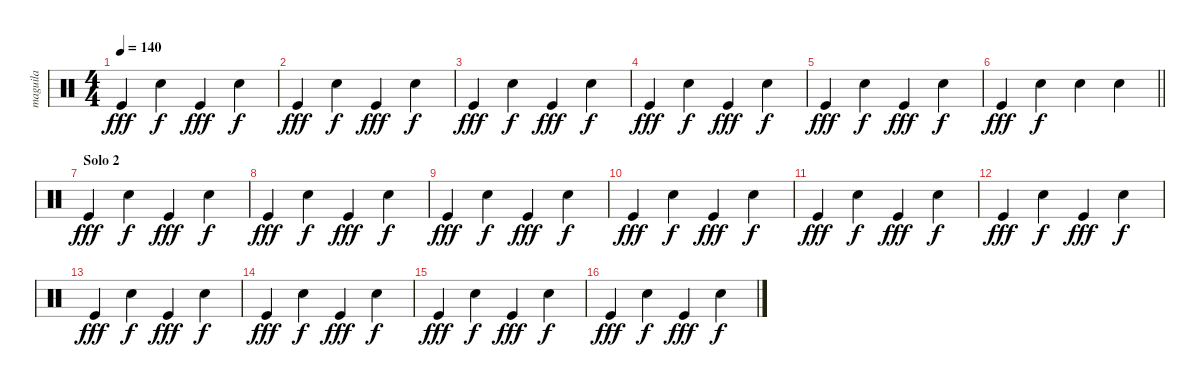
\track ("maguila" "maguila") {instrument percussion}
\staff {score}
\articulation defaults
\ts (4 4)
\tempo 140
\clef neutral
\ks c "Kick (hit)".4{dy fff} "Snare (hit) 2".4{dy f} "Kick (hit)".4{dy fff} "Snare (hit) 2".4{dy f}
|
"Kick (hit)".4{dy fff} "Snare (hit) 2".4{dy f} "Kick (hit)".4{dy fff} "Snare (hit) 2".4{dy f} |
"Kick (hit)".4{dy fff} "Snare (hit) 2".4{dy f} "Kick (hit)".4{dy fff} "Snare (hit) 2".4{dy f} |
"Kick (hit)".4{dy fff} "Snare (hit) 2".4{dy f} "Kick (hit)".4{dy fff} "Snare (hit) 2".4{dy f} |
"Kick (hit)".4{dy fff} "Snare (hit) 2".4{dy f} "Kick (hit)".4{dy fff} "Snare (hit) 2".4{dy f} |
\barLineRight lightlight "Kick (hit)".4{dy fff} "Snare (hit) 2".4{dy f} "Snare (hit) 2".4 "Snare (hit) 2".4
|
\section ("" "Solo 2")
"Kick (hit)".4{dy fff} "Snare (hit) 2".4{dy f} "Kick (hit)".4{dy fff} "Snare (hit) 2".4{dy f} |
"Kick (hit)".4{dy fff} "Snare (hit) 2".4{dy f} "Kick (hit)".4{dy fff} "Snare (hit) 2".4{dy f} |
"Kick (hit)".4{dy fff} "Snare (hit) 2".4{dy f} "Kick (hit)".4{dy fff} "Snare (hit) 2".4{dy f} |
"Kick (hit)".4{dy fff} "Snare (hit) 2".4{dy f} "Kick (hit)".4{dy fff} "Snare (hit) 2".4{dy f} |
"Kick (hit)".4{dy fff} "Snare (hit) 2".4{dy f} "Kick (hit)".4{dy fff} "Snare (hit) 2".4{dy f} |
"Kick (hit)".4{dy fff} "Snare (hit) 2".4{dy f} "Kick (hit)".4{dy fff} "Snare (hit) 2".4{dy f} |
"Kick (hit)".4{dy fff} "Snare (hit) 2".4{dy f} "Kick (hit)".4{dy fff} "Snare (hit) 2".4{dy f} |
"Kick (hit)".4{dy fff} "Snare (hit) 2".4{dy f} "Kick (hit)".4{dy fff} "Snare (hit) 2".4{dy f} |
"Kick (hit)".4{dy fff} "Snare (hit) 2".4{dy f} "Kick (hit)".4{dy fff} "Snare (hit) 2".4{dy f} |
"Kick (hit)".4{dy fff} "Snare (hit) 2".4{dy f} "Kick (hit)".4{dy fff} "Snare (hit) 2".4{dy f}
